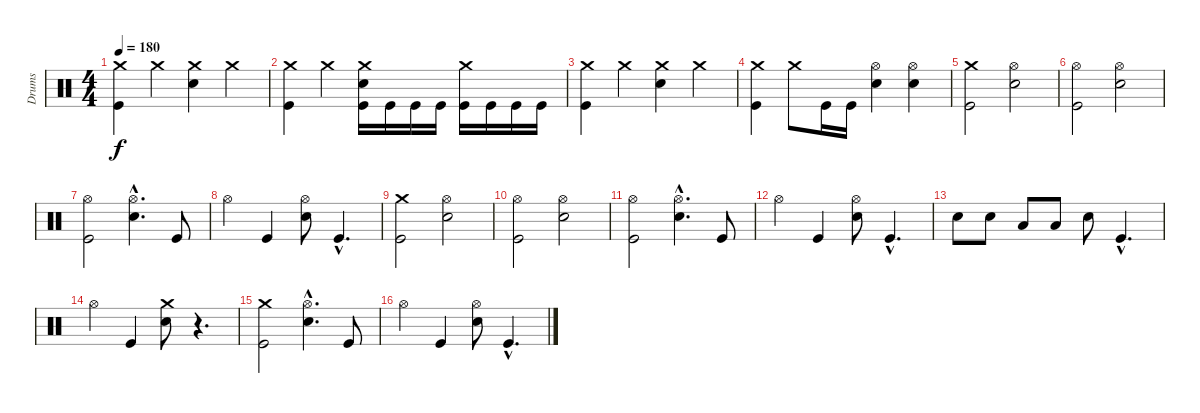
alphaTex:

\track ("Drums" "Drums") {instrument percussion}
\staff {score}
\articulation defaults
\ts (4 4)
\tempo 180
\clef neutral
\ks c
("Crash medium (hit)" "Kick (hit)").4{dy f} "Crash medium (hit)".4 ("Crash medium (hit)" "Electric Snare (hit)").4 "Crash medium (hit)".4 |
("Crash medium (hit)" "Kick (hit)").4 "Crash medium (hit)".4 ("Crash medium (hit)" "Kick (hit)" "Electric Snare (hit)").16 "Kick (hit)".16 "Kick (hit)".16 "Kick (hit)".16 ("Crash medium (hit)" "Kick (hit)").16 "Kick (hit)".16 "Kick (hit)".16 "Kick (hit)".16 |
("Crash medium (hit)" "Kick (hit)").4 "Crash medium (hit)".4 ("Crash medium (hit)" "Electric Snare (hit)").4 "Crash medium (hit)".4 |
("Crash medium (hit)" "Kick (hit)").4 "Crash medium (hit)".8 "Kick (hit)".16 "Kick (hit)".16 ("Hi-Hat (open)" "Electric Snare (hit)").4 ("Hi-Hat (open)" "Electric Snare (hit)").4 |
("Crash medium (hit)" "Kick (hit)").2 ("Hi-Hat (open)" "Electric Snare (hit)").2 |
("Hi-Hat (open)" "Kick (hit)").2 ("Hi-Hat (open)" "Electric Snare (hit)").2 |
("Hi-Hat (open)" "Kick (hit)").2 ("Hi-Hat (open)"{hac} "Electric Snare (hit)"{hac}).4{d} "Kick (hit)".8 |
"Hi-Hat (open)".4 "Kick (hit)".4 ("Hi-Hat (open)" "Electric Snare (hit)").8 "Kick (hit)"{hac}.4{d} |
("Crash medium (hit)" "Kick (hit)").2 ("Hi-Hat (open)" "Electric Snare (hit)").2 |
("Hi-Hat (open)" "Kick (hit)").2 ("Hi-Hat (open)" "Electric Snare (hit)").2 |
("Hi-Hat (open)" "Kick (hit)").2 ("Hi-Hat (open)"{hac} "Electric Snare (hit)"{hac}).4{d} "Kick (hit)".8 |
"Hi-Hat (open)".4 "Kick (hit)".4 ("Hi-Hat (open)" "Electric Snare (hit)").8 "Kick (hit)"{hac}.4{d} |
"Electric Snare (hit)".8 "Electric Snare (hit)".8 "Low Tom (hit)".8 "Low Tom (hit)".8 "Electric Snare (hit)".8 "Kick (hit)"{hac}.4{d} |
"Hi-Hat (open)".4 "Kick (hit)".4 ("Crash medium (hit)" "Electric Snare (hit)").8 r.4{d} |
("Crash medium (hit)" "Kick (hit)").2 ("Hi-Hat (open)"{hac} "Electric Snare (hit)"{hac}).4{d} "Kick (hit)".8 |
"Hi-Hat (open)".4 "Kick (hit)".4 ("Hi-Hat (open)" "Electric Snare (hit)").8 "Kick (hit)"{hac}.4{d}
